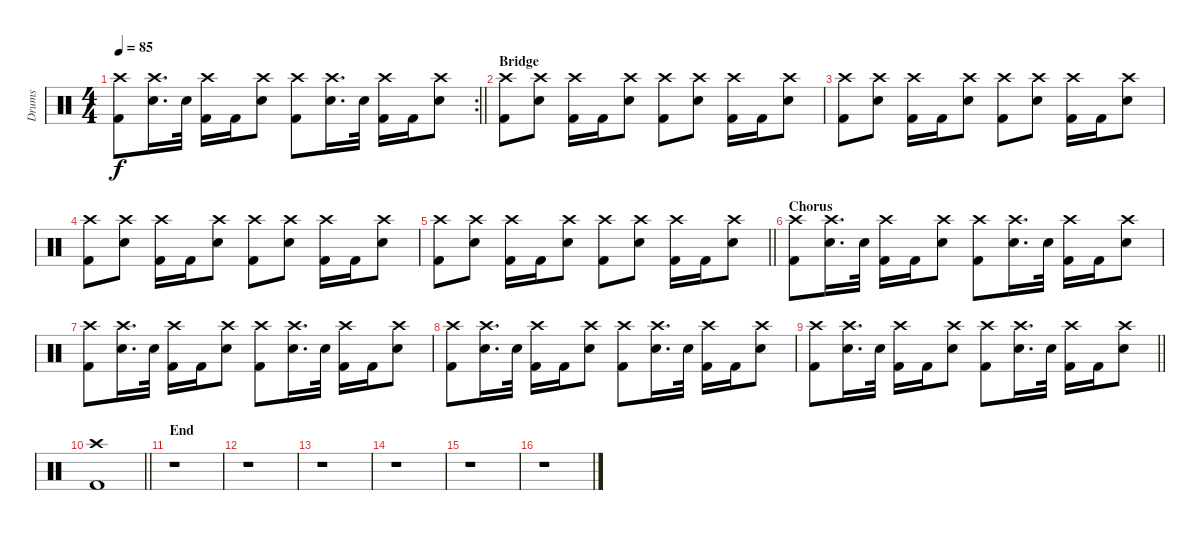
\track ("Drums" "Drums") {instrument percussion}
\staff {score}
\articulation defaults
\rc 2
\ts (4 4)
\tempo 85
\clef neutral
\barLineRight lightlight
\ks c
("Crash high (hit)" "Kick (hit) 2").8{dy f} ("Crash high (hit)" "Electric Snare (hit)").16{d} "Electric Snare (hit)".32 ("Crash high (hit)" "Kick (hit) 2").16 "Kick (hit) 2".16 ("Crash high (hit)" "Electric Snare (hit)").8 ("Crash high (hit)" "Kick (hit) 2").8 ("Crash high (hit)" "Electric Snare (hit)").16{d} "Electric Snare (hit)".32 ("Crash high (hit)" "Kick (hit) 2").16 "Kick (hit) 2".16 ("Crash high (hit)" "Electric Snare (hit)").8 |
\section ("" "Bridge")
("Crash high (hit)" "Kick (hit) 2").8 ("Crash high (hit)" "Electric Snare (hit)").8 ("Crash high (hit)" "Kick (hit) 2").16 "Kick (hit) 2".16 ("Crash high (hit)" "Electric Snare (hit)").8 ("Crash high (hit)" "Kick (hit) 2").8 ("Crash high (hit)" "Electric Snare (hit)").8 ("Crash high (hit)" "Kick (hit) 2").16 "Kick (hit) 2".16 ("Crash high (hit)" "Electric Snare (hit)").8 |
("Crash high (hit)" "Kick (hit) 2").8 ("Crash high (hit)" "Electric Snare (hit)").8 ("Crash high (hit)" "Kick (hit) 2").16 "Kick (hit) 2".16 ("Crash high (hit)" "Electric Snare (hit)").8 ("Crash high (hit)" "Kick (hit) 2").8 ("Crash high (hit)" "Electric Snare (hit)").8 ("Crash high (hit)" "Kick (hit) 2").16 "Kick (hit) 2".16 ("Crash high (hit)" "Electric Snare (hit)").8 |
("Crash high (hit)" "Kick (hit) 2").8 ("Crash high (hit)" "Electric Snare (hit)").8 ("Crash high (hit)" "Kick (hit) 2").16 "Kick (hit) 2".16 ("Crash high (hit)" "Electric Snare (hit)").8 ("Crash high (hit)" "Kick (hit) 2").8 ("Crash high (hit)" "Electric Snare (hit)").8 ("Crash high (hit)" "Kick (hit) 2").16 "Kick (hit) 2".16 ("Crash high (hit)" "Electric Snare (hit)").8 |
\barLineRight lightlight
("Crash high (hit)" "Kick (hit) 2").8 ("Crash high (hit)" "Electric Snare (hit)").8 ("Crash high (hit)" "Kick (hit) 2").16 "Kick (hit) 2".16 ("Crash high (hit)" "Electric Snare (hit)").8 ("Crash high (hit)" "Kick (hit) 2").8 ("Crash high (hit)" "Electric Snare (hit)").8 ("Crash high (hit)" "Kick (hit) 2").16 "Kick (hit) 2".16 ("Crash high (hit)" "Electric Snare (hit)").8 |
\section ("" "Chorus")
("Crash high (hit)" "Kick (hit) 2").8 ("Crash high (hit)" "Electric Snare (hit)").16{d} "Electric Snare (hit)".32 ("Crash high (hit)" "Kick (hit) 2").16 "Kick (hit) 2".16 ("Crash high (hit)" "Electric Snare (hit)").8 ("Crash high (hit)" "Kick (hit) 2").8 ("Crash high (hit)" "Electric Snare (hit)").16{d} "Electric Snare (hit)".32 ("Crash high (hit)" "Kick (hit) 2").16 "Kick (hit) 2".16 ("Crash high (hit)" "Electric Snare (hit)").8 |
("Crash high (hit)" "Kick (hit) 2").8 ("Crash high (hit)" "Electric Snare (hit)").16{d} "Electric Snare (hit)".32 ("Crash high (hit)" "Kick (hit) 2").16 "Kick (hit) 2".16 ("Crash high (hit)" "Electric Snare (hit)").8 ("Crash high (hit)" "Kick (hit) 2").8 ("Crash high (hit)" "Electric Snare (hit)").16{d} "Electric Snare (hit)".32 ("Crash high (hit)" "Kick (hit) 2").16 "Kick (hit) 2".16 ("Crash high (hit)" "Electric Snare (hit)").8 |
("Crash high (hit)" "Kick (hit) 2").8 ("Crash high (hit)" "Electric Snare (hit)").16{d} "Electric Snare (hit)".32 ("Crash high (hit)" "Kick (hit) 2").16 "Kick (hit) 2".16 ("Crash high (hit)" "Electric Snare (hit)").8 ("Crash high (hit)" "Kick (hit) 2").8 ("Crash high (hit)" "Electric Snare (hit)").16{d} "Electric Snare (hit)".32 ("Crash high (hit)" "Kick (hit) 2").16 "Kick (hit) 2".16 ("Crash high (hit)" "Electric Snare (hit)").8 |
\barLineRight lightlight
("Crash high (hit)" "Kick (hit) 2").8 ("Crash high (hit)" "Electric Snare (hit)").16{d} "Electric Snare (hit)".32 ("Crash high (hit)" "Kick (hit) 2").16 "Kick (hit) 2".16 ("Crash high (hit)" "Electric Snare (hit)").8 ("Crash high (hit)" "Kick (hit) 2").8 ("Crash high (hit)" "Electric Snare (hit)").16{d} "Electric Snare (hit)".32 ("Crash high (hit)" "Kick (hit) 2").16 "Kick (hit) 2".16 ("Crash high (hit)" "Electric Snare (hit)").8 |
\barLineRight lightlight
("Crash high (hit)" "Kick (hit) 2").1 |
\section ("" "End")
r.1 |
r.1 |
r.1 |
r.1 |
r.1 |
r.1
